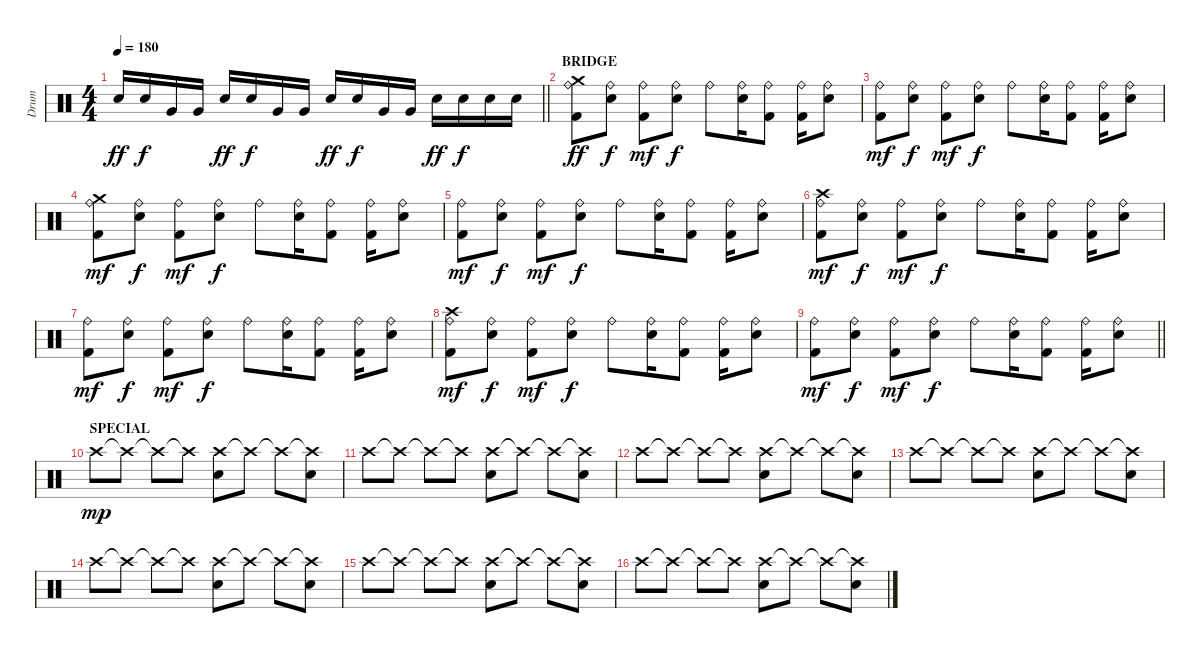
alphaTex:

\track ("Drum" "Drum") {instrument percussion}
\staff {score}
\articulation defaults
\ts (4 4)
\tempo 180
\clef neutral
\barLineRight lightlight
\ks c "Electric Snare (hit)".16{dy ff} "Electric Snare (hit)".16{dy f} "Very Low Tom (hit)".16 "Very Low Tom (hit)".16 "Electric Snare (hit)".16{dy ff} "Electric Snare (hit)".16{dy f} "Very Low Tom (hit)".16 "Very Low Tom (hit)".16 "Electric Snare (hit)".16{dy ff} "Electric Snare (hit)".16{dy f} "Very Low Tom (hit)".16 "Very Low Tom (hit)".16 "Electric Snare (hit)".16{dy ff} "Electric Snare (hit)".16{dy f} "Electric Snare (hit)".16 "Electric Snare (hit)".16
|
\section ("" "BRIDGE")
("Ride (bell)" "Crash medium (hit)" "Kick (hit) 2").8{dy ff} ("Ride (bell)" "Electric Snare (hit)").8{dy f} ("Ride (bell)" "Kick (hit) 2").8{dy mf} ("Ride (bell)" "Electric Snare (hit)").8{dy f} "Ride (bell)".8 ("Ride (bell)" "Electric Snare (hit)").16 ("Ride (bell)" "Kick (hit) 2").8 ("Ride (bell)" "Kick (hit) 2").16 ("Ride (bell)" "Electric Snare (hit)").8 |
("Ride (bell)" "Kick (hit) 2").8{dy mf} ("Ride (bell)" "Electric Snare (hit)").8{dy f} ("Ride (bell)" "Kick (hit) 2").8{dy mf} ("Ride (bell)" "Electric Snare (hit)").8{dy f} "Ride (bell)".8 ("Ride (bell)" "Electric Snare (hit)").16 ("Ride (bell)" "Kick (hit) 2").8 ("Ride (bell)" "Kick (hit) 2").16 ("Ride (bell)" "Electric Snare (hit)").8 |
("Ride (bell)" "Crash medium (hit)" "Kick (hit) 2").8{dy mf} ("Ride (bell)" "Electric Snare (hit)").8{dy f} ("Ride (bell)" "Kick (hit) 2").8{dy mf} ("Ride (bell)" "Electric Snare (hit)").8{dy f} "Ride (bell)".8 ("Ride (bell)" "Electric Snare (hit)").16 ("Ride (bell)" "Kick (hit) 2").8 ("Ride (bell)" "Kick (hit) 2").16 ("Ride (bell)" "Electric Snare (hit)").8 |
("Ride (bell)" "Kick (hit) 2").8{dy mf} ("Ride (bell)" "Electric Snare (hit)").8{dy f} ("Ride (bell)" "Kick (hit) 2").8{dy mf} ("Ride (bell)" "Electric Snare (hit)").8{dy f} "Ride (bell)".8 ("Ride (bell)" "Electric Snare (hit)").16 ("Ride (bell)" "Kick (hit) 2").8 ("Ride (bell)" "Kick (hit) 2").16 ("Ride (bell)" "Electric Snare (hit)").8 |
("Ride (bell)" "Crash high (hit)" "Kick (hit) 2").8{dy mf} ("Ride (bell)" "Electric Snare (hit)").8{dy f} ("Ride (bell)" "Kick (hit) 2").8{dy mf} ("Ride (bell)" "Electric Snare (hit)").8{dy f} "Ride (bell)".8 ("Ride (bell)" "Electric Snare (hit)").16 ("Ride (bell)" "Kick (hit) 2").8 ("Ride (bell)" "Kick (hit) 2").16 ("Ride (bell)" "Electric Snare (hit)").8 |
("Ride (bell)" "Kick (hit) 2").8{dy mf} ("Ride (bell)" "Electric Snare (hit)").8{dy f} ("Ride (bell)" "Kick (hit) 2").8{dy mf} ("Ride (bell)" "Electric Snare (hit)").8{dy f} "Ride (bell)".8 ("Ride (bell)" "Electric Snare (hit)").16 ("Ride (bell)" "Kick (hit) 2").8 ("Ride (bell)" "Kick (hit) 2").16 ("Ride (bell)" "Electric Snare (hit)").8 |
("Ride (bell)" "Crash high (hit)" "Kick (hit) 2").8{dy mf} ("Ride (bell)" "Electric Snare (hit)").8{dy f} ("Ride (bell)" "Kick (hit) 2").8{dy mf} ("Ride (bell)" "Electric Snare (hit)").8{dy f} "Ride (bell)".8 ("Ride (bell)" "Electric Snare (hit)").16 ("Ride (bell)" "Kick (hit) 2").8 ("Ride (bell)" "Kick (hit) 2").16 ("Ride (bell)" "Electric Snare (hit)").8 |
\barLineRight lightlight
("Ride (bell)" "Kick (hit) 2").8{dy mf} ("Ride (bell)" "Electric Snare (hit)").8{dy f} ("Ride (bell)" "Kick (hit) 2").8{dy mf} ("Ride (bell)" "Electric Snare (hit)").8{dy f} "Ride (bell)".8 ("Ride (bell)" "Electric Snare (hit)").16 ("Ride (bell)" "Kick (hit) 2").8 ("Ride (bell)" "Kick (hit) 2").16 ("Ride (bell)" "Electric Snare (hit)").8 |
\section ("" "SPECIAL")
"Crash high (hit)".8{dy mp} "Crash high (hit)"{t}.8 "Crash high (hit)"{t}.8 "Crash high (hit)"{t}.8 ("Crash high (hit)" "Electric Snare (hit)").8 "Crash high (hit)"{t}.8 "Crash high (hit)"{t}.8 ("Crash high (hit)"{t} "Electric Snare (hit)").8 |
"Crash high (hit)".8 "Crash high (hit)"{t}.8 "Crash high (hit)"{t}.8 "Crash high (hit)"{t}.8 ("Crash high (hit)" "Electric Snare (hit)").8 "Crash high (hit)"{t}.8 "Crash high (hit)"{t}.8 ("Crash high (hit)"{t} "Electric Snare (hit)").8 |
"Crash high (hit)".8 "Crash high (hit)"{t}.8 "Crash high (hit)"{t}.8 "Crash high (hit)"{t}.8 ("Crash high (hit)" "Electric Snare (hit)").8 "Crash high (hit)"{t}.8 "Crash high (hit)"{t}.8 ("Crash high (hit)"{t} "Electric Snare (hit)").8 |
"Crash high (hit)".8 "Crash high (hit)"{t}.8 "Crash high (hit)"{t}.8 "Crash high (hit)"{t}.8 ("Crash high (hit)" "Electric Snare (hit)").8 "Crash high (hit)"{t}.8 "Crash high (hit)"{t}.8 ("Crash high (hit)"{t} "Electric Snare (hit)").8 |
"Crash high (hit)".8 "Crash high (hit)"{t}.8 "Crash high (hit)"{t}.8 "Crash high (hit)"{t}.8 ("Crash high (hit)" "Electric Snare (hit)").8 "Crash high (hit)"{t}.8 "Crash high (hit)"{t}.8 ("Crash high (hit)"{t} "Electric Snare (hit)").8 |
"Crash high (hit)".8 "Crash high (hit)"{t}.8 "Crash high (hit)"{t}.8 "Crash high (hit)"{t}.8 ("Crash high (hit)" "Electric Snare (hit)").8 "Crash high (hit)"{t}.8 "Crash high (hit)"{t}.8 ("Crash high (hit)"{t} "Electric Snare (hit)").8 |
"Crash high (hit)".8 "Crash high (hit)"{t}.8 "Crash high (hit)"{t}.8 "Crash high (hit)"{t}.8 ("Crash high (hit)" "Electric Snare (hit)").8 "Crash high (hit)"{t}.8 "Crash high (hit)"{t}.8 ("Crash high (hit)"{t} "Electric Snare (hit)").8
